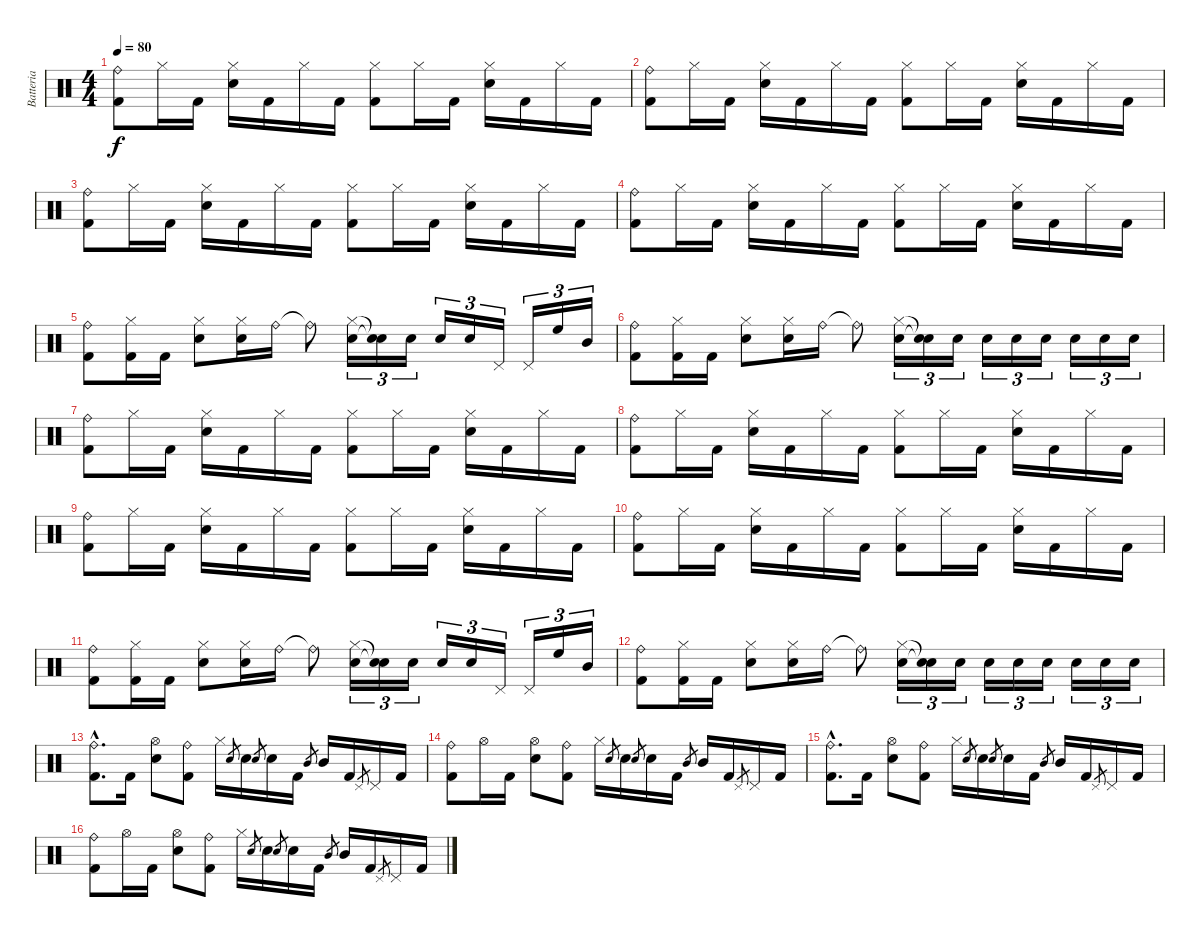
\track ("Batteria" "Batteria") {instrument percussion}
\staff {score}
\articulation defaults
\ts (4 4)
\tempo 80
\clef neutral
\ks c
("Ride (bell)" "Kick (hit) 2").8{dy f} "Hi-Hat (closed)".16 "Kick (hit) 2".16 ("Hi-Hat (closed)" "Snare (hit) 2").16 "Kick (hit) 2".16 "Hi-Hat (closed)".16 "Kick (hit) 2".16 ("Hi-Hat (closed)" "Kick (hit) 2").8 "Hi-Hat (closed)".16 "Kick (hit) 2".16 ("Hi-Hat (closed)" "Snare (hit) 2").16 "Kick (hit) 2".16 "Hi-Hat (closed)".16 "Kick (hit) 2".16 |
("Ride (bell)" "Kick (hit) 2").8 "Hi-Hat (closed)".16 "Kick (hit) 2".16 ("Hi-Hat (closed)" "Snare (hit) 2").16 "Kick (hit) 2".16 "Hi-Hat (closed)".16 "Kick (hit) 2".16 ("Hi-Hat (closed)" "Kick (hit) 2").8 "Hi-Hat (closed)".16 "Kick (hit) 2".16 ("Hi-Hat (closed)" "Snare (hit) 2").16 "Kick (hit) 2".16 "Hi-Hat (closed)".16 "Kick (hit) 2".16 |
("Ride (bell)" "Kick (hit) 2").8 "Hi-Hat (closed)".16 "Kick (hit) 2".16 ("Hi-Hat (closed)" "Snare (hit) 2").16 "Kick (hit) 2".16 "Hi-Hat (closed)".16 "Kick (hit) 2".16 ("Hi-Hat (closed)" "Kick (hit) 2").8 "Hi-Hat (closed)".16 "Kick (hit) 2".16 ("Hi-Hat (closed)" "Snare (hit) 2").16 "Kick (hit) 2".16 "Hi-Hat (closed)".16 "Kick (hit) 2".16 |
("Ride (bell)" "Kick (hit) 2").8 "Hi-Hat (closed)".16 "Kick (hit) 2".16 ("Hi-Hat (closed)" "Snare (hit) 2").16 "Kick (hit) 2".16 "Hi-Hat (closed)".16 "Kick (hit) 2".16 ("Hi-Hat (closed)" "Kick (hit) 2").8 "Hi-Hat (closed)".16 "Kick (hit) 2".16 ("Hi-Hat (closed)" "Snare (hit) 2").16 "Kick (hit) 2".16 "Hi-Hat (closed)".16 "Kick (hit) 2".16 |
("Ride (bell)" "Kick (hit) 2").8 ("Hi-Hat (closed)" "Kick (hit) 2").16 "Kick (hit) 2".16 ("Hi-Hat (closed)" "Snare (hit) 2").8 ("Hi-Hat (closed)" "Snare (hit) 2").16 "Ride (bell)".16 "Ride (bell)"{t}.8 ("Hi-Hat (closed)" "Snare (hit) 2").16{tu (3 2)} ("Snare (hit)"{t} "Snare (hit)"{t}).16{tu (3 2)} "Snare (hit) 2".16{tu (3 2)} "Snare (hit) 2".16{tu (3 2)} "Snare (hit) 2".16{tu (3 2)} "Pedal Hi-Hat (hit)".16{tu (3 2)} "Pedal Hi-Hat (hit)".16{tu (3 2)} "High Floor Tom (hit)".16{tu (3 2)} "Mid Tom (hit)".16{tu (3 2)} |
("Ride (bell)" "Kick (hit) 2").8 ("Hi-Hat (closed)" "Kick (hit) 2").16 "Kick (hit) 2".16 ("Hi-Hat (closed)" "Snare (hit) 2").8 ("Hi-Hat (closed)" "Snare (hit) 2").16 "Ride (bell)".16 "Ride (bell)"{t}.8 ("Hi-Hat (closed)" "Snare (hit) 2").16{tu (3 2)} ("Snare (hit)"{t} "Snare (hit)"{t}).16{tu (3 2)} "Snare (hit) 2".16{tu (3 2)} "Snare (hit) 2".16{tu (3 2)} "Snare (hit) 2".16{tu (3 2)} "Snare (hit) 2".16{tu (3 2)} "Snare (hit) 2".16{tu (3 2)} "Snare (hit) 2".16{tu (3 2)} "Snare (hit) 2".16{tu (3 2)} |
("Ride (bell)" "Kick (hit) 2").8 "Hi-Hat (closed)".16 "Kick (hit) 2".16 ("Hi-Hat (closed)" "Snare (hit) 2").16 "Kick (hit) 2".16 "Hi-Hat (closed)".16 "Kick (hit) 2".16 ("Hi-Hat (closed)" "Kick (hit) 2").8 "Hi-Hat (closed)".16 "Kick (hit) 2".16 ("Hi-Hat (closed)" "Snare (hit) 2").16 "Kick (hit) 2".16 "Hi-Hat (closed)".16 "Kick (hit) 2".16 |
("Ride (bell)" "Kick (hit) 2").8 "Hi-Hat (closed)".16 "Kick (hit) 2".16 ("Hi-Hat (closed)" "Snare (hit) 2").16 "Kick (hit) 2".16 "Hi-Hat (closed)".16 "Kick (hit) 2".16 ("Hi-Hat (closed)" "Kick (hit) 2").8 "Hi-Hat (closed)".16 "Kick (hit) 2".16 ("Hi-Hat (closed)" "Snare (hit) 2").16 "Kick (hit) 2".16 "Hi-Hat (closed)".16 "Kick (hit) 2".16 |
("Ride (bell)" "Kick (hit) 2").8 "Hi-Hat (closed)".16 "Kick (hit) 2".16 ("Hi-Hat (closed)" "Snare (hit) 2").16 "Kick (hit) 2".16 "Hi-Hat (closed)".16 "Kick (hit) 2".16 ("Hi-Hat (closed)" "Kick (hit) 2").8 "Hi-Hat (closed)".16 "Kick (hit) 2".16 ("Hi-Hat (closed)" "Snare (hit) 2").16 "Kick (hit) 2".16 "Hi-Hat (closed)".16 "Kick (hit) 2".16 |
("Ride (bell)" "Kick (hit) 2").8 "Hi-Hat (closed)".16 "Kick (hit) 2".16 ("Hi-Hat (closed)" "Snare (hit) 2").16 "Kick (hit) 2".16 "Hi-Hat (closed)".16 "Kick (hit) 2".16 ("Hi-Hat (closed)" "Kick (hit) 2").8 "Hi-Hat (closed)".16 "Kick (hit) 2".16 ("Hi-Hat (closed)" "Snare (hit) 2").16 "Kick (hit) 2".16 "Hi-Hat (closed)".16 "Kick (hit) 2".16 |
("Ride (bell)" "Kick (hit) 2").8 ("Hi-Hat (closed)" "Kick (hit) 2").16 "Kick (hit) 2".16 ("Hi-Hat (closed)" "Snare (hit) 2").8 ("Hi-Hat (closed)" "Snare (hit) 2").16 "Ride (bell)".16 "Ride (bell)"{t}.8 ("Hi-Hat (closed)" "Snare (hit) 2").16{tu (3 2)} ("Snare (hit)"{t} "Snare (hit)"{t}).16{tu (3 2)} "Snare (hit) 2".16{tu (3 2)} "Snare (hit) 2".16{tu (3 2)} "Snare (hit) 2".16{tu (3 2)} "Pedal Hi-Hat (hit)".16{tu (3 2)} "Pedal Hi-Hat (hit)".16{tu (3 2)} "High Floor Tom (hit)".16{tu (3 2)} "Mid Tom (hit)".16{tu (3 2)} |
("Ride (bell)" "Kick (hit) 2").8 ("Hi-Hat (closed)" "Kick (hit) 2").16 "Kick (hit) 2".16 ("Hi-Hat (closed)" "Snare (hit) 2").8 ("Hi-Hat (closed)" "Snare (hit) 2").16 "Ride (bell)".16 "Ride (bell)"{t}.8 ("Hi-Hat (closed)" "Snare (hit) 2").16{tu (3 2)} ("Snare (hit)"{t} "Snare (hit)"{t}).16{tu (3 2)} "Snare (hit) 2".16{tu (3 2)} "Snare (hit) 2".16{tu (3 2)} "Snare (hit) 2".16{tu (3 2)} "Snare (hit) 2".16{tu (3 2)} "Snare (hit) 2".16{tu (3 2)} "Snare (hit) 2".16{tu (3 2)} "Snare (hit) 2".16{tu (3 2)} |
("Ride (bell)"{hac} "Kick (hit) 2"{hac}).8{d} "Kick (hit) 2".16 ("Hi-Hat (open)" "Snare (hit) 2").8 ("Ride (bell)" "Kick (hit) 2").8 "Hi-Hat (closed)".16 "Snare (hit) 2".8{gr} "Snare (hit) 2".16 "Snare (hit) 2".8{gr} "Snare (hit) 2".16 "Kick (hit) 2".16 "Mid Tom (hit)".8{gr} "Mid Tom (hit)".16 "Kick (hit) 2".16 "Pedal Hi-Hat (hit)".8{gr} "Pedal Hi-Hat (hit)".16 "Kick (hit) 2".16 |
("Ride (bell)" "Kick (hit) 2").8 "Hi-Hat (open)".16 "Kick (hit) 2".16 ("Hi-Hat (open)" "Snare (hit) 2").8 ("Ride (bell)" "Kick (hit) 2").8 "Hi-Hat (closed)".16 "Snare (hit) 2".8{gr} "Snare (hit) 2".16 "Snare (hit) 2".8{gr} "Snare (hit) 2".16 "Kick (hit) 2".16 "Mid Tom (hit)".8{gr} "Mid Tom (hit)".16 "Kick (hit) 2".16 "Pedal Hi-Hat (hit)".8{gr} "Pedal Hi-Hat (hit)".16 "Kick (hit) 2".16 |
("Ride (bell)"{hac} "Kick (hit) 2"{hac}).8{d} "Kick (hit) 2".16 ("Hi-Hat (open)" "Snare (hit) 2").8 ("Ride (bell)" "Kick (hit) 2").8 "Hi-Hat (closed)".16 "Snare (hit) 2".8{gr} "Snare (hit) 2".16 "Snare (hit) 2".8{gr} "Snare (hit) 2".16 "Kick (hit) 2".16 "Mid Tom (hit)".8{gr} "Mid Tom (hit)".16 "Kick (hit) 2".16 "Pedal Hi-Hat (hit)".8{gr} "Pedal Hi-Hat (hit)".16 "Kick (hit) 2".16 |
("Ride (bell)" "Kick (hit) 2").8 "Hi-Hat (open)".16 "Kick (hit) 2".16 ("Hi-Hat (open)" "Snare (hit) 2").8 ("Ride (bell)" "Kick (hit) 2").8 "Hi-Hat (closed)".16 "Snare (hit) 2".8{gr} "Snare (hit) 2".16 "Snare (hit) 2".8{gr} "Snare (hit) 2".16 "Kick (hit) 2".16 "Mid Tom (hit)".8{gr} "Mid Tom (hit)".16 "Kick (hit) 2".16 "Pedal Hi-Hat (hit)".8{gr} "Pedal Hi-Hat (hit)".16 "Kick (hit) 2".16
